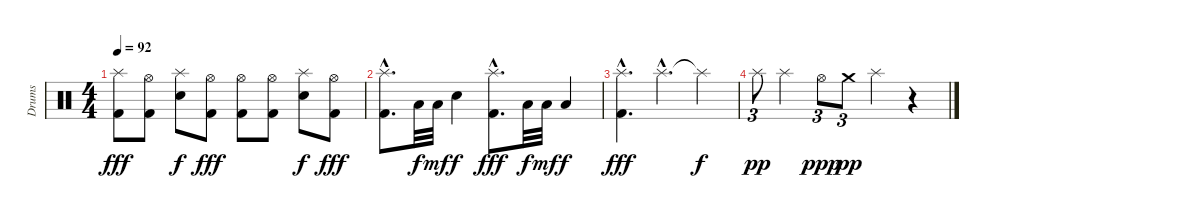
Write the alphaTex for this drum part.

\track ("Drums" "Drums") {instrument percussion}
\staff {score}
\articulation defaults
\ts (4 4)
\tempo 92
\clef neutral
\ks c
("Splash (hit)" "Kick (hit) 2").8{dy fff} ("Hi-Hat (open)" "Kick (hit) 2").8 ("Splash (hit)" "Snare (hit) 2").8{dy f} ("Hi-Hat (open)" "Kick (hit) 2").8{dy fff} ("Hi-Hat (open)" "Kick (hit) 2").8 ("Hi-Hat (open)" "Kick (hit) 2").8 ("Splash (hit)" "Snare (hit) 2").8{dy f} ("Hi-Hat (open)" "Kick (hit) 2").8{dy fff} |
("Splash (hit)"{hac} "Kick (hit) 2"{hac}).8{d} "Low Floor Tom (hit)".32{dy f} "Low Floor Tom (hit)".32{dy mf} "Snare (hit) 2".4{dy f} ("Splash (hit)"{hac} "Kick (hit) 2"{hac}).8{d dy fff} "Low Floor Tom (hit)".32{dy f} "Low Floor Tom (hit)".32{dy mf} "Low Floor Tom (hit)".4{dy f} |
("Splash (hit)"{hac} "Kick (hit) 2"{hac}).4{d dy fff volume 2} "Splash (hit)"{hac}.4{d volume 16} "Splash (hit)"{t}.4{dy f} |
"Splash (hit)".8{tu (3 2) dy pp volume 11} "Splash (hit)".4 "Hi-Hat (open)".8{tu (3 2) dy ppp} "Crash medium (hit)".8{tu (3 2) dy pp} "Splash (hit)".4{volume 0} r.4
